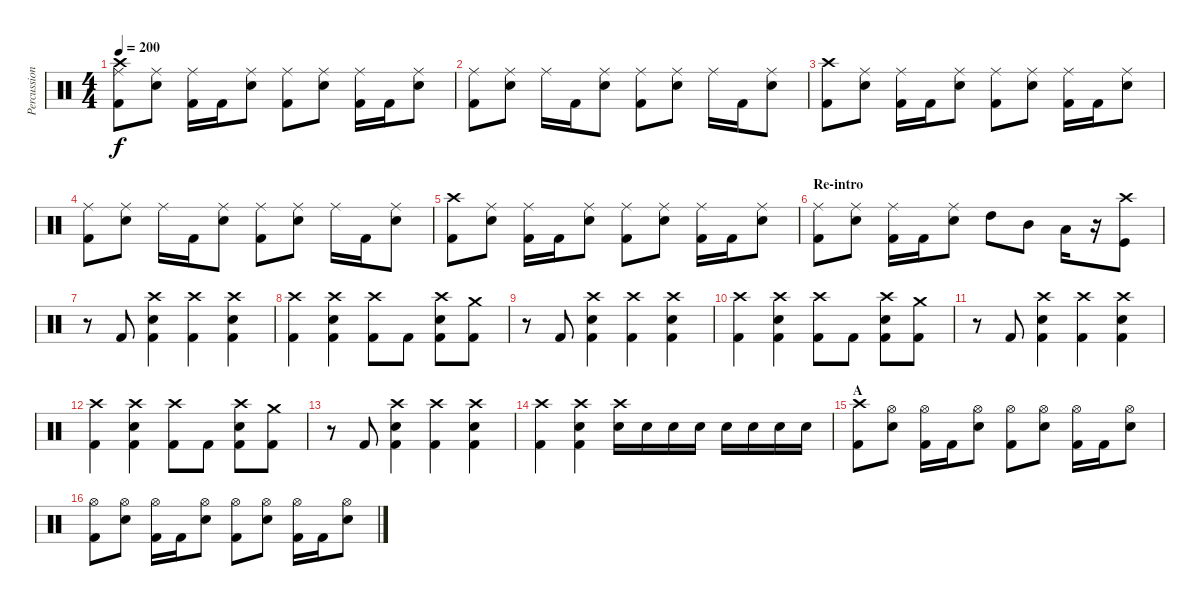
\track ("Percussion" "Percussion") {instrument percussion}
\staff {score}
\articulation defaults
\ts (4 4)
\tempo 200
\clef neutral
\ks c
("Crash high (hit)" "Ride (middle)" "Kick (hit) 2").8{dy f} ("Ride (middle)" "Electric Snare (hit)").8 ("Ride (middle)" "Kick (hit) 2").16 "Kick (hit) 2".16 ("Ride (middle)" "Electric Snare (hit)").8 ("Ride (middle)" "Kick (hit) 2").8 ("Ride (middle)" "Electric Snare (hit)").8 ("Ride (middle)" "Kick (hit) 2").16 "Kick (hit) 2".16 ("Ride (middle)" "Electric Snare (hit)").8 |
("Ride (middle)" "Kick (hit) 2").8 ("Ride (middle)" "Electric Snare (hit)").8 "Ride (middle)".16 "Kick (hit) 2".16 ("Ride (middle)" "Electric Snare (hit)").8 ("Ride (middle)" "Kick (hit) 2").8 ("Ride (middle)" "Electric Snare (hit)").8 "Ride (middle)".16 "Kick (hit) 2".16 ("Ride (middle)" "Electric Snare (hit)").8 |
("Crash high (hit)" "Kick (hit) 2").8 ("Ride (middle)" "Electric Snare (hit)").8 ("Ride (middle)" "Kick (hit) 2").16 "Kick (hit) 2".16 ("Ride (middle)" "Electric Snare (hit)").8 ("Ride (middle)" "Kick (hit) 2").8 ("Ride (middle)" "Electric Snare (hit)").8 ("Ride (middle)" "Kick (hit) 2").16 "Kick (hit) 2".16 ("Ride (middle)" "Electric Snare (hit)").8 |
("Ride (middle)" "Kick (hit) 2").8 ("Ride (middle)" "Electric Snare (hit)").8 "Ride (middle)".16 "Kick (hit) 2".16 ("Ride (middle)" "Electric Snare (hit)").8 ("Ride (middle)" "Kick (hit) 2").8 ("Ride (middle)" "Electric Snare (hit)").8 "Ride (middle)".16 "Kick (hit) 2".16 ("Ride (middle)" "Electric Snare (hit)").8 |
("Crash high (hit)" "Kick (hit) 2").8 ("Ride (middle)" "Electric Snare (hit)").8 ("Ride (middle)" "Kick (hit) 2").16 "Kick (hit) 2".16 ("Ride (middle)" "Electric Snare (hit)").8 ("Ride (middle)" "Kick (hit) 2").8 ("Ride (middle)" "Electric Snare (hit)").8 ("Ride (middle)" "Kick (hit) 2").16 "Kick (hit) 2".16 ("Ride (middle)" "Electric Snare (hit)").8 |
\section ("" "Re-intro")
("Ride (middle)" "Kick (hit) 2").8 ("Ride (middle)" "Electric Snare (hit)").8 ("Ride (middle)" "Kick (hit) 2").16 "Kick (hit) 2".16 ("Ride (middle)" "Electric Snare (hit)").8 "High Tom (hit)".8 "Mid Tom (hit)".8 "Low Tom (hit)".16 r.16 ("Crash high (hit)" "Kick (hit)").8 |
r.8 "Kick (hit) 2".8 ("Crash high (hit)" "Electric Snare (hit)" "Kick (hit) 2").4 ("Crash high (hit)" "Kick (hit) 2").4 ("Crash high (hit)" "Electric Snare (hit)" "Kick (hit) 2").4 |
("Crash high (hit)" "Kick (hit) 2").4 ("Crash high (hit)" "Electric Snare (hit)" "Kick (hit) 2").4 ("Crash high (hit)" "Kick (hit) 2").8 "Kick (hit) 2".8 ("Crash high (hit)" "Electric Snare (hit)" "Kick (hit) 2").8 ("Crash medium (hit)" "Kick (hit) 2").8 |
r.8 "Kick (hit) 2".8 ("Crash high (hit)" "Electric Snare (hit)" "Kick (hit) 2").4 ("Crash high (hit)" "Kick (hit) 2").4 ("Crash high (hit)" "Electric Snare (hit)" "Kick (hit) 2").4 |
("Crash high (hit)" "Kick (hit) 2").4 ("Crash high (hit)" "Electric Snare (hit)" "Kick (hit) 2").4 ("Crash high (hit)" "Kick (hit) 2").8 "Kick (hit) 2".8 ("Crash high (hit)" "Electric Snare (hit)" "Kick (hit) 2").8 ("Crash medium (hit)" "Kick (hit) 2").8 |
r.8 "Kick (hit) 2".8 ("Crash high (hit)" "Electric Snare (hit)" "Kick (hit) 2").4 ("Crash high (hit)" "Kick (hit) 2").4 ("Crash high (hit)" "Electric Snare (hit)" "Kick (hit) 2").4 |
("Crash high (hit)" "Kick (hit) 2").4 ("Crash high (hit)" "Electric Snare (hit)" "Kick (hit) 2").4 ("Crash high (hit)" "Kick (hit) 2").8 "Kick (hit) 2".8 ("Crash high (hit)" "Electric Snare (hit)" "Kick (hit) 2").8 ("Crash medium (hit)" "Kick (hit) 2").8 |
r.8 "Kick (hit) 2".8 ("Crash high (hit)" "Electric Snare (hit)" "Kick (hit) 2").4 ("Crash high (hit)" "Kick (hit) 2").4 ("Crash high (hit)" "Electric Snare (hit)" "Kick (hit) 2").4 |
("Crash high (hit)" "Kick (hit) 2").4 ("Crash high (hit)" "Electric Snare (hit)" "Kick (hit) 2").4 ("Crash high (hit)" "Electric Snare (hit)").16 "Electric Snare (hit)".16 "Electric Snare (hit)".16 "Electric Snare (hit)".16 "Electric Snare (hit)".16 "Electric Snare (hit)".16 "Electric Snare (hit)".16 "Electric Snare (hit)".16 |
\section ("" "A")
("Crash high (hit)" "Kick (hit) 2").8 ("Hi-Hat (open)" "Electric Snare (hit)").8 ("Hi-Hat (open)" "Kick (hit) 2").16 "Kick (hit) 2".16 ("Hi-Hat (open)" "Electric Snare (hit)").8 ("Hi-Hat (open)" "Kick (hit) 2").8 ("Hi-Hat (open)" "Electric Snare (hit)").8 ("Hi-Hat (open)" "Kick (hit) 2").16 "Kick (hit) 2".16 ("Hi-Hat (open)" "Electric Snare (hit)").8 |
("Hi-Hat (open)" "Kick (hit) 2").8 ("Hi-Hat (open)" "Electric Snare (hit)").8 ("Hi-Hat (open)" "Kick (hit) 2").16 "Kick (hit) 2".16 ("Hi-Hat (open)" "Electric Snare (hit)").8 ("Hi-Hat (open)" "Kick (hit) 2").8 ("Hi-Hat (open)" "Electric Snare (hit)").8 ("Hi-Hat (open)" "Kick (hit) 2").16 "Kick (hit) 2".16 ("Hi-Hat (open)" "Electric Snare (hit)").8
